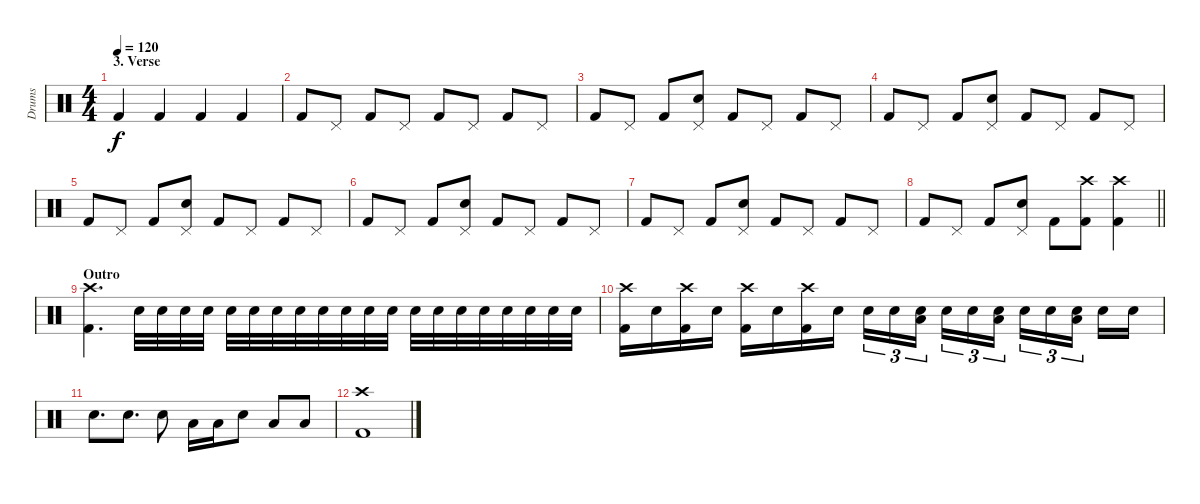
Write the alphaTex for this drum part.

\track ("Drums" "Drums") {instrument percussion}
\staff {score}
\articulation defaults
\ts (4 4)
\section ("" "3. Verse")
\tempo 120
\clef neutral
\ks c "Kick (hit) 2".4{dy f} "Kick (hit) 2".4 "Kick (hit) 2".4 "Kick (hit) 2".4
|
"Kick (hit) 2".8 "Pedal Hi-Hat (hit)".8 "Kick (hit) 2".8 "Pedal Hi-Hat (hit)".8 "Kick (hit) 2".8 "Pedal Hi-Hat (hit)".8 "Kick (hit) 2".8 "Pedal Hi-Hat (hit)".8 |
"Kick (hit) 2".8 "Pedal Hi-Hat (hit)".8 "Kick (hit) 2".8 ("Pedal Hi-Hat (hit)" "Snare (hit) 2").8 "Kick (hit) 2".8 "Pedal Hi-Hat (hit)".8 "Kick (hit) 2".8 "Pedal Hi-Hat (hit)".8 |
"Kick (hit) 2".8 "Pedal Hi-Hat (hit)".8 "Kick (hit) 2".8 ("Pedal Hi-Hat (hit)" "Snare (hit) 2").8 "Kick (hit) 2".8 "Pedal Hi-Hat (hit)".8 "Kick (hit) 2".8 "Pedal Hi-Hat (hit)".8 |
"Kick (hit) 2".8 "Pedal Hi-Hat (hit)".8 "Kick (hit) 2".8 ("Pedal Hi-Hat (hit)" "Snare (hit) 2").8 "Kick (hit) 2".8 "Pedal Hi-Hat (hit)".8 "Kick (hit) 2".8 "Pedal Hi-Hat (hit)".8 |
"Kick (hit) 2".8 "Pedal Hi-Hat (hit)".8 "Kick (hit) 2".8 ("Pedal Hi-Hat (hit)" "Snare (hit) 2").8 "Kick (hit) 2".8 "Pedal Hi-Hat (hit)".8 "Kick (hit) 2".8 "Pedal Hi-Hat (hit)".8 |
"Kick (hit) 2".8 "Pedal Hi-Hat (hit)".8 "Kick (hit) 2".8 ("Pedal Hi-Hat (hit)" "Snare (hit) 2").8 "Kick (hit) 2".8 "Pedal Hi-Hat (hit)".8 "Kick (hit) 2".8 "Pedal Hi-Hat (hit)".8 |
\barLineRight lightlight "Kick (hit) 2".8 "Pedal Hi-Hat (hit)".8 "Kick (hit) 2".8
("Pedal Hi-Hat (hit)" "Snare (hit) 2").8 "Kick (hit) 2".8 ("Crash high (hit)" "Kick (hit) 2").8 ("Crash high (hit)" "Kick (hit) 2").4 |
\section ("" "Outro")
("Crash high (hit)" "Kick (hit) 2").4{d} "Snare (hit) 2".32 "Snare (hit) 2".32 "Snare (hit) 2".32 "Snare (hit) 2".32 "Snare (hit) 2".32 "Snare (hit) 2".32 "Snare (hit) 2".32 "Snare (hit) 2".32 "Snare (hit) 2".32 "Snare (hit) 2".32 "Snare (hit) 2".32 "Snare (hit) 2".32 "Snare (hit) 2".32 "Snare (hit) 2".32 "Snare (hit) 2".32 "Snare (hit) 2".32 "Snare (hit) 2".32 "Snare (hit) 2".32 "Snare (hit) 2".32 "Snare (hit) 2".32 |
("Crash high (hit)" "Kick (hit) 2").16 "Snare (hit) 2".16 ("Crash high (hit)" "Kick (hit) 2").16 "Snare (hit) 2".16 ("Crash high (hit)" "Kick (hit) 2").16 "Snare (hit) 2".16 ("Crash high (hit)" "Kick (hit) 2").16 "Snare (hit) 2".16 "Snare (hit) 2".16{tu (3 2)} "Snare (hit) 2".16{tu (3 2)} ("Snare (hit) 2" "Low Tom (hit)").16{tu (3 2) beam splitsecondary} "Snare (hit) 2".16{tu (3 2)} "Snare (hit) 2".16{tu (3 2)} ("Snare (hit) 2" "Low Tom (hit)").16{tu (3 2)} "Snare (hit) 2".16{tu (3 2)} "Snare (hit) 2".16{tu (3 2)} ("Snare (hit) 2" "Low Tom (hit)").16{tu (3 2) beam splitsecondary} "Snare (hit) 2".16 "Snare (hit) 2".16 |
"Snare (hit) 2".8{d} "Snare (hit) 2".8{d} "Snare (hit) 2".8 "Low Tom (hit)".16 "Low Tom (hit)".16 "Snare (hit) 2".8 "Low Tom (hit)".8 "Low Tom (hit)".8 |
("Crash high (hit)" "Kick (hit) 2").1
